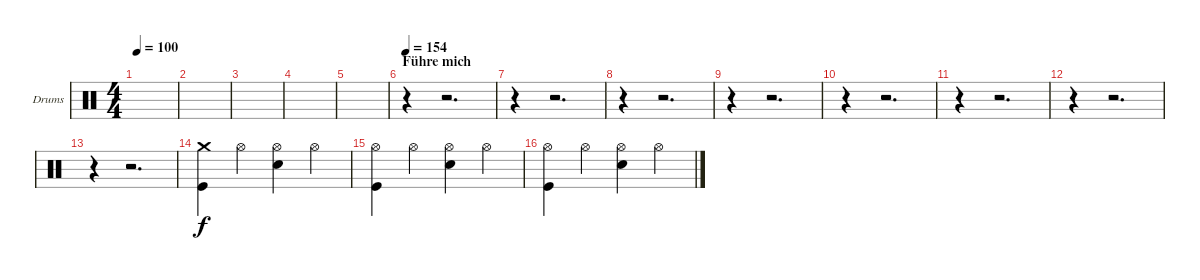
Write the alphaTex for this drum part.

\bracketExtendMode groupsimilarinstruments
\firstSystemTrackNameOrientation horizontal
\otherSystemsTrackNameOrientation horizontal
\track ("Drumkit (Christoph)" "Drums") {instrument percussion}
\staff {score}
\articulation defaults
\ts (4 4)
\tempo 100
\clef neutral
\ks c
|
|
|
|
|
\section ("" "Führe mich")
\tempo 154
r.4 r.2{d} |
r.4 r.2{d} |
r.4 r.2{d} |
r.4 r.2{d} |
r.4 r.2{d} |
r.4 r.2{d} |
r.4 r.2{d} |
r.4 r.2{d} |
("Crash medium (hit)" "Kick (hit)").4 "Hi-Hat (open)".4 ("Hi-Hat (open)" "Snare (hit) 2").4 "Hi-Hat (open)".4 |
("Hi-Hat (open)" "Kick (hit)").4 "Hi-Hat (open)".4 ("Hi-Hat (open)" "Snare (hit) 2").4 "Hi-Hat (open)".4 |
("Hi-Hat (open)" "Kick (hit)").4 "Hi-Hat (open)".4 ("Hi-Hat (open)" "Snare (hit) 2").4 "Hi-Hat (open)".4
